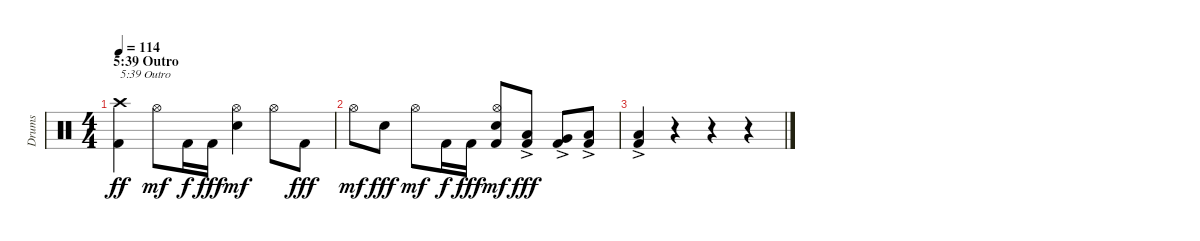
\track ("Drums" "Drums") {instrument percussion}
\staff {score}
\articulation defaults
\ts (4 4)
\section ("" "5:39 Outro")
\tempo 114
\clef neutral
\ks c
("Kick (hit) 2" "Crash high (hit)").4{txt "5:39 Outro" dy ff} "Hi-Hat (open)".8{dy mf} "Kick (hit) 2".16{dy f} "Kick (hit) 2".16{dy fff} ("Electric Snare (hit)" "Hi-Hat (open)").4{dy mf} "Hi-Hat (open)".8 "Kick (hit) 2".8{dy fff} |
"Hi-Hat (open)".8{dy mf} "Electric Snare (hit)".8{dy fff} "Hi-Hat (open)".8{dy mf} "Kick (hit) 2".16{dy f} "Kick (hit) 2".16{dy fff} ("Kick (hit) 2" "Electric Snare (hit)" "Hi-Hat (open)").8{dy mf} ("Kick (hit) 2" "Low Tom (hit)"{ac}).8{dy fff} ("Kick (hit) 2" "Very Low Tom (hit)"{ac}).8 ("Kick (hit) 2" "Low Floor Tom (hit)"{ac}).8 |
("Kick (hit) 2"{ac} "Low Floor Tom (hit)"{ac}).4 r.4 r.4 r.4
